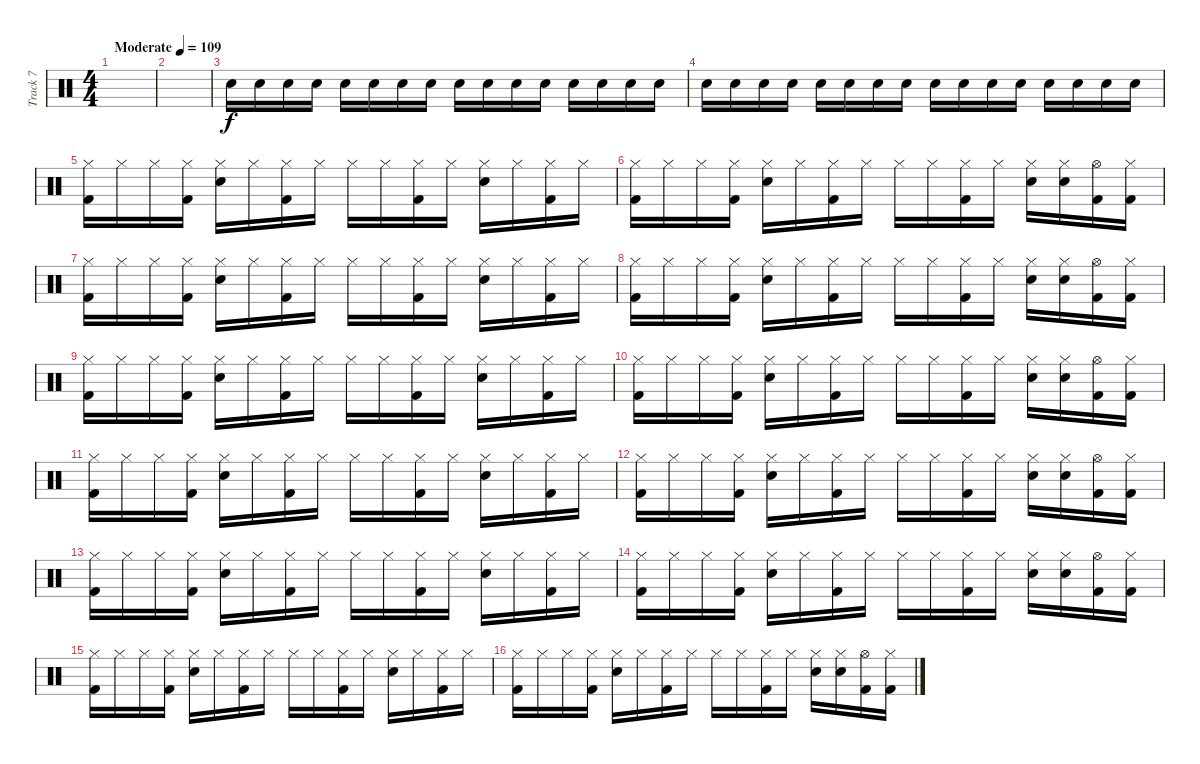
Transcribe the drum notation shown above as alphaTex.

\track ("Track 7" "Track 7") {instrument percussion}
\staff {score}
\articulation defaults
\ts (4 4)
\tempo (109 "Moderate")
\clef neutral
\ks c
|
|
"Snare (hit) 2".16 "Snare (hit) 2".16{volume 8} "Snare (hit) 2".16{volume 6} "Snare (hit) 2".16 "Snare (hit) 2".16 "Snare (hit) 2".16 "Snare (hit) 2".16{volume 7} "Snare (hit) 2".16 "Snare (hit) 2".16 "Snare (hit) 2".16{volume 8} "Snare (hit) 2".16 "Snare (hit) 2".16 "Snare (hit) 2".16 "Snare (hit) 2".16{volume 9} "Snare (hit) 2".16 "Snare (hit) 2".16 |
"Snare (hit) 2".16{volume 10} "Snare (hit) 2".16 "Snare (hit) 2".16 "Snare (hit) 2".16{volume 11} "Snare (hit) 2".16 "Snare (hit) 2".16 "Snare (hit) 2".16 "Snare (hit) 2".16{volume 12} "Snare (hit) 2".16 "Snare (hit) 2".16{volume 13} "Snare (hit) 2".16 "Snare (hit) 2".16 "Snare (hit) 2".16 "Snare (hit) 2".16 "Snare (hit) 2".16 "Snare (hit) 2".16 |
("Hi-Hat (closed)" "Kick (hit) 2").16 "Hi-Hat (closed)".16 "Hi-Hat (closed)".16 ("Hi-Hat (closed)" "Kick (hit) 2").16 ("Hi-Hat (closed)" "Snare (hit) 2").16 "Hi-Hat (closed)".16 ("Hi-Hat (closed)" "Kick (hit) 2").16 "Hi-Hat (closed)".16 "Hi-Hat (closed)".16 "Hi-Hat (closed)".16 ("Hi-Hat (closed)" "Kick (hit) 2").16 "Hi-Hat (closed)".16 ("Hi-Hat (closed)" "Snare (hit) 2").16 "Hi-Hat (closed)".16 ("Hi-Hat (closed)" "Kick (hit) 2").16 "Hi-Hat (closed)".16 |
("Hi-Hat (closed)" "Kick (hit) 2").16 "Hi-Hat (closed)".16 "Hi-Hat (closed)".16 ("Hi-Hat (closed)" "Kick (hit) 2").16 ("Hi-Hat (closed)" "Snare (hit) 2").16 "Hi-Hat (closed)".16 ("Hi-Hat (closed)" "Kick (hit) 2").16 "Hi-Hat (closed)".16 "Hi-Hat (closed)".16 "Hi-Hat (closed)".16 ("Hi-Hat (closed)" "Kick (hit) 2").16 "Hi-Hat (closed)".16 ("Hi-Hat (closed)" "Snare (hit) 2").16 ("Hi-Hat (closed)" "Snare (hit) 2").16 ("Hi-Hat (open)" "Kick (hit) 2").16 ("Hi-Hat (closed)" "Kick (hit) 2").16 |
("Hi-Hat (closed)" "Kick (hit) 2").16 "Hi-Hat (closed)".16 "Hi-Hat (closed)".16 ("Hi-Hat (closed)" "Kick (hit) 2").16 ("Hi-Hat (closed)" "Snare (hit) 2").16 "Hi-Hat (closed)".16 ("Hi-Hat (closed)" "Kick (hit) 2").16 "Hi-Hat (closed)".16 "Hi-Hat (closed)".16 "Hi-Hat (closed)".16 ("Hi-Hat (closed)" "Kick (hit) 2").16 "Hi-Hat (closed)".16 ("Hi-Hat (closed)" "Snare (hit) 2").16 "Hi-Hat (closed)".16 ("Hi-Hat (closed)" "Kick (hit) 2").16 "Hi-Hat (closed)".16 |
("Hi-Hat (closed)" "Kick (hit) 2").16 "Hi-Hat (closed)".16 "Hi-Hat (closed)".16 ("Hi-Hat (closed)" "Kick (hit) 2").16 ("Hi-Hat (closed)" "Snare (hit) 2").16 "Hi-Hat (closed)".16 ("Hi-Hat (closed)" "Kick (hit) 2").16 "Hi-Hat (closed)".16 "Hi-Hat (closed)".16 "Hi-Hat (closed)".16 ("Hi-Hat (closed)" "Kick (hit) 2").16 "Hi-Hat (closed)".16 ("Hi-Hat (closed)" "Snare (hit) 2").16 ("Hi-Hat (closed)" "Snare (hit) 2").16 ("Hi-Hat (open)" "Kick (hit) 2").16 ("Hi-Hat (closed)" "Kick (hit) 2").16 |
("Hi-Hat (closed)" "Kick (hit) 2").16 "Hi-Hat (closed)".16 "Hi-Hat (closed)".16 ("Hi-Hat (closed)" "Kick (hit) 2").16 ("Hi-Hat (closed)" "Snare (hit) 2").16 "Hi-Hat (closed)".16 ("Hi-Hat (closed)" "Kick (hit) 2").16 "Hi-Hat (closed)".16 "Hi-Hat (closed)".16 "Hi-Hat (closed)".16 ("Hi-Hat (closed)" "Kick (hit) 2").16 "Hi-Hat (closed)".16 ("Hi-Hat (closed)" "Snare (hit) 2").16 "Hi-Hat (closed)".16 ("Hi-Hat (closed)" "Kick (hit) 2").16 "Hi-Hat (closed)".16 |
("Hi-Hat (closed)" "Kick (hit) 2").16 "Hi-Hat (closed)".16 "Hi-Hat (closed)".16 ("Hi-Hat (closed)" "Kick (hit) 2").16 ("Hi-Hat (closed)" "Snare (hit) 2").16 "Hi-Hat (closed)".16 ("Hi-Hat (closed)" "Kick (hit) 2").16 "Hi-Hat (closed)".16 "Hi-Hat (closed)".16 "Hi-Hat (closed)".16 ("Hi-Hat (closed)" "Kick (hit) 2").16 "Hi-Hat (closed)".16 ("Hi-Hat (closed)" "Snare (hit) 2").16 ("Hi-Hat (closed)" "Snare (hit) 2").16 ("Hi-Hat (open)" "Kick (hit) 2").16 ("Hi-Hat (closed)" "Kick (hit) 2").16 |
("Hi-Hat (closed)" "Kick (hit) 2").16 "Hi-Hat (closed)".16 "Hi-Hat (closed)".16 ("Hi-Hat (closed)" "Kick (hit) 2").16 ("Hi-Hat (closed)" "Snare (hit) 2").16 "Hi-Hat (closed)".16 ("Hi-Hat (closed)" "Kick (hit) 2").16 "Hi-Hat (closed)".16 "Hi-Hat (closed)".16 "Hi-Hat (closed)".16 ("Hi-Hat (closed)" "Kick (hit) 2").16 "Hi-Hat (closed)".16 ("Hi-Hat (closed)" "Snare (hit) 2").16 "Hi-Hat (closed)".16 ("Hi-Hat (closed)" "Kick (hit) 2").16 "Hi-Hat (closed)".16 |
("Hi-Hat (closed)" "Kick (hit) 2").16 "Hi-Hat (closed)".16 "Hi-Hat (closed)".16 ("Hi-Hat (closed)" "Kick (hit) 2").16 ("Hi-Hat (closed)" "Snare (hit) 2").16 "Hi-Hat (closed)".16 ("Hi-Hat (closed)" "Kick (hit) 2").16 "Hi-Hat (closed)".16 "Hi-Hat (closed)".16 "Hi-Hat (closed)".16 ("Hi-Hat (closed)" "Kick (hit) 2").16 "Hi-Hat (closed)".16 ("Hi-Hat (closed)" "Snare (hit) 2").16 ("Hi-Hat (closed)" "Snare (hit) 2").16 ("Hi-Hat (open)" "Kick (hit) 2").16 ("Hi-Hat (closed)" "Kick (hit) 2").16 |
("Hi-Hat (closed)" "Kick (hit) 2").16 "Hi-Hat (closed)".16 "Hi-Hat (closed)".16 ("Hi-Hat (closed)" "Kick (hit) 2").16 ("Hi-Hat (closed)" "Snare (hit) 2").16 "Hi-Hat (closed)".16 ("Hi-Hat (closed)" "Kick (hit) 2").16 "Hi-Hat (closed)".16 "Hi-Hat (closed)".16 "Hi-Hat (closed)".16 ("Hi-Hat (closed)" "Kick (hit) 2").16 "Hi-Hat (closed)".16 ("Hi-Hat (closed)" "Snare (hit) 2").16 "Hi-Hat (closed)".16 ("Hi-Hat (closed)" "Kick (hit) 2").16 "Hi-Hat (closed)".16 |
("Hi-Hat (closed)" "Kick (hit) 2").16 "Hi-Hat (closed)".16 "Hi-Hat (closed)".16 ("Hi-Hat (closed)" "Kick (hit) 2").16 ("Hi-Hat (closed)" "Snare (hit) 2").16 "Hi-Hat (closed)".16 ("Hi-Hat (closed)" "Kick (hit) 2").16 "Hi-Hat (closed)".16 "Hi-Hat (closed)".16 "Hi-Hat (closed)".16 ("Hi-Hat (closed)" "Kick (hit) 2").16 "Hi-Hat (closed)".16 ("Hi-Hat (closed)" "Snare (hit) 2").16 ("Hi-Hat (closed)" "Snare (hit) 2").16 ("Hi-Hat (open)" "Kick (hit) 2").16 ("Hi-Hat (closed)" "Kick (hit) 2").16 |
("Hi-Hat (closed)" "Kick (hit) 2").16 "Hi-Hat (closed)".16 "Hi-Hat (closed)".16 ("Hi-Hat (closed)" "Kick (hit) 2").16 ("Hi-Hat (closed)" "Snare (hit) 2").16 "Hi-Hat (closed)".16 ("Hi-Hat (closed)" "Kick (hit) 2").16 "Hi-Hat (closed)".16 "Hi-Hat (closed)".16 "Hi-Hat (closed)".16 ("Hi-Hat (closed)" "Kick (hit) 2").16 "Hi-Hat (closed)".16 ("Hi-Hat (closed)" "Snare (hit) 2").16 "Hi-Hat (closed)".16 ("Hi-Hat (closed)" "Kick (hit) 2").16 "Hi-Hat (closed)".16 |
("Hi-Hat (closed)" "Kick (hit) 2").16 "Hi-Hat (closed)".16 "Hi-Hat (closed)".16 ("Hi-Hat (closed)" "Kick (hit) 2").16 ("Hi-Hat (closed)" "Snare (hit) 2").16 "Hi-Hat (closed)".16 ("Hi-Hat (closed)" "Kick (hit) 2").16 "Hi-Hat (closed)".16 "Hi-Hat (closed)".16 "Hi-Hat (closed)".16 ("Hi-Hat (closed)" "Kick (hit) 2").16 "Hi-Hat (closed)".16 ("Hi-Hat (closed)" "Snare (hit) 2").16 ("Hi-Hat (closed)" "Snare (hit) 2").16 ("Hi-Hat (open)" "Kick (hit) 2").16 ("Hi-Hat (closed)" "Kick (hit) 2").16
